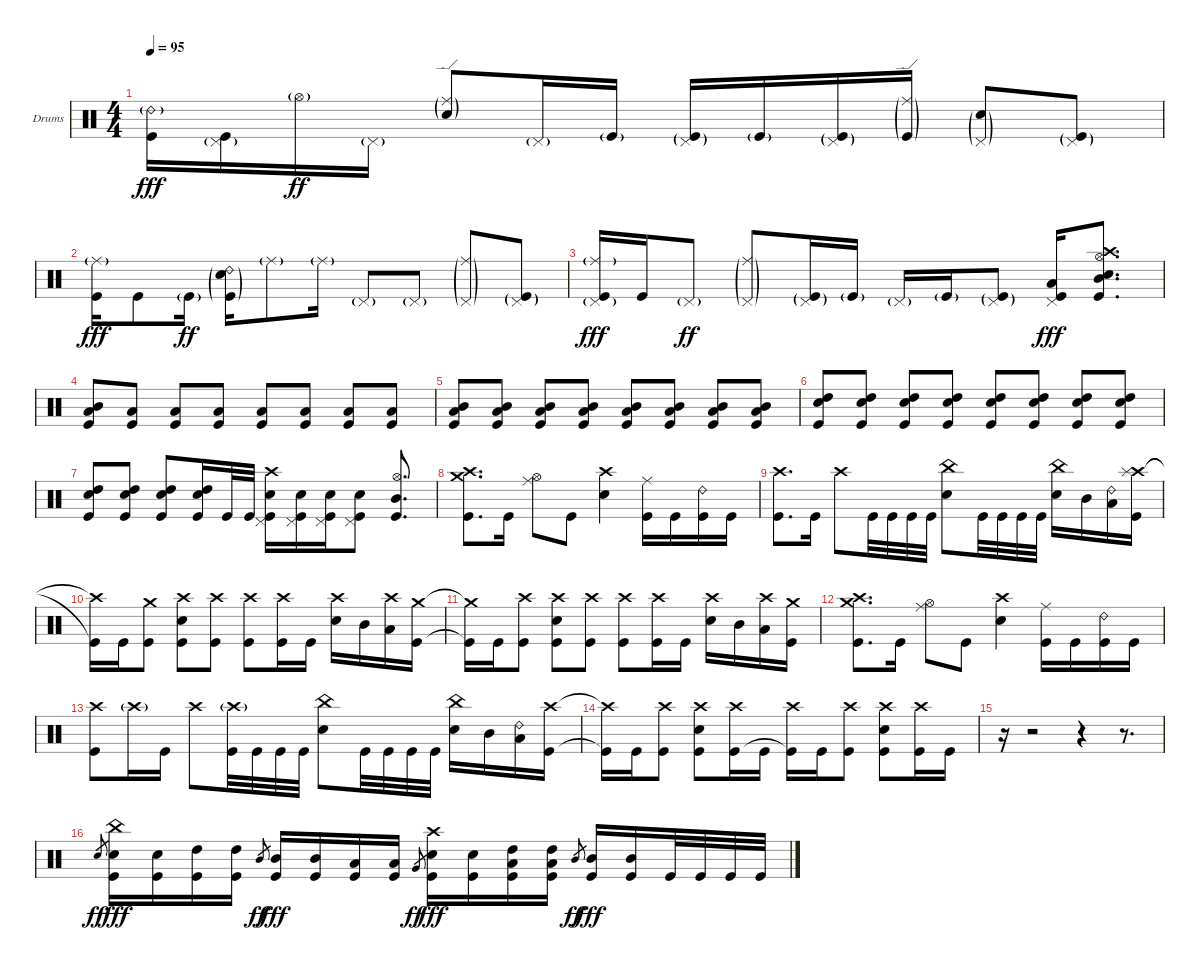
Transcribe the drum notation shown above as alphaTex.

\defaultSystemsLayout 4
\bracketExtendMode groupsimilarinstruments
\firstSystemTrackNameOrientation horizontal
\otherSystemsTrackNameOrientation horizontal
\track ("Drumkit" "Drums") {instrument percussion}
\staff {score}
\articulation defaults
\ts (4 4)
\tempo 95
\clef neutral
\scale
0.333333
\ks c
("Ride (bell) 2"{g} "Kick (hit)").16{dy fff} ("Pedal Hi-Hat (hit)"{g} "Kick (hit)").16 "Hi-Hat (open)"{g}.16{dy ff} "Pedal Hi-Hat (hit)"{g}.16 ("Ride (edge)"{g} "Snare (hit) 2"{g}).8 "Pedal Hi-Hat (hit)"{g}.16 "Kick (hit)"{g}.16 ("Pedal Hi-Hat (hit)"{g} "Kick (hit)"{g}).16 "Kick (hit)"{g}.16 ("Pedal Hi-Hat (hit)"{g} "Kick (hit)"{g}).16 ("Ride (edge)"{g} "Kick (hit)"{g}).16 ("Pedal Hi-Hat (hit)"{g} "Snare (hit) 2"{g}).8 ("Pedal Hi-Hat (hit)"{g} "Kick (hit)"{g}).8 |
\scale
0.333333 ("Ride (middle)"{g} "Kick (hit)").16{dy fff} "Kick (hit)".8 "Kick (hit)"{g}.16{dy ff} ("Ride (bell) 2"{g} "Snare (hit) 2"{g} "Kick (hit)"{g}).16 "Ride (middle)"{g}.8 "Ride (middle)"{g}.16 "Pedal Hi-Hat (hit)"{g}.8 "Pedal Hi-Hat (hit)"{g}.8 ("Pedal Hi-Hat (hit)"{g} "Ride (middle)"{g}).8 ("Pedal Hi-Hat (hit)"{g} "Kick (hit)"{g}).8 |
\scale
0.333333 ("Pedal Hi-Hat (hit)"{g} "Ride (middle)"{g} "Kick (hit)").16{dy fff} "Kick (hit)".16 "Pedal Hi-Hat (hit)"{g}.8{dy ff} ("Pedal Hi-Hat (hit)"{g} "Ride (middle)"{g}).8 ("Pedal Hi-Hat (hit)"{g} "Kick (hit)"{g}).16 "Kick (hit)"{g}.16 "Pedal Hi-Hat (hit)"{g}.16 "Kick (hit)"{g}.16 ("Pedal Hi-Hat (hit)"{g} "Kick (hit)"{g}).8 ("Pedal Hi-Hat (hit)" "Low Tom (hit)" "Kick (hit)").16{dy fff} ("Hi-Hat (open)" "Crash high (hit)" "Snare (hit) 2" "Mid Tom (hit)" "Kick (hit)").8{d} |
\scale
0.333333 ("Low Tom (hit)" "Mid Tom (hit)" "Kick (hit)").8 ("Low Tom (hit)" "Kick (hit)").8 ("Low Tom (hit)" "Kick (hit)").8 ("Low Tom (hit)" "Kick (hit)").8 ("Low Tom (hit)" "Kick (hit)").8 ("Low Tom (hit)" "Kick (hit)").8 ("Low Tom (hit)" "Kick (hit)").8 ("Low Tom (hit)" "Kick (hit)").8 |
\scale
0.333333 ("Low Tom (hit)" "Mid Tom (hit)" "Kick (hit)").8 ("Low Tom (hit)" "Mid Tom (hit)" "Kick (hit)").8 ("Low Tom (hit)" "Mid Tom (hit)" "Kick (hit)").8 ("Low Tom (hit)" "Mid Tom (hit)" "Kick (hit)").8 ("Low Tom (hit)" "Mid Tom (hit)" "Kick (hit)").8 ("Low Tom (hit)" "Mid Tom (hit)" "Kick (hit)").8 ("Low Tom (hit)" "Mid Tom (hit)" "Kick (hit)").8 ("Low Tom (hit)" "Mid Tom (hit)" "Kick (hit)").8 |
\scale
0.333333 ("Snare (hit) 2" "High Tom (hit)" "Kick (hit)").8 ("Snare (hit) 2" "High Tom (hit)" "Kick (hit)").8 ("Snare (hit) 2" "High Tom (hit)" "Kick (hit)").8 ("Snare (hit) 2" "High Tom (hit)" "Kick (hit)").8 ("Snare (hit) 2" "High Tom (hit)" "Kick (hit)").8 ("Snare (hit) 2" "High Tom (hit)" "Kick (hit)").8 ("Snare (hit) 2" "High Tom (hit)" "Kick (hit)").8 ("Snare (hit) 2" "High Tom (hit)" "Kick (hit)").8 |
\scale
0.333333 ("Snare (hit) 2" "High Tom (hit)" "Kick (hit)").8 ("Snare (hit) 2" "High Tom (hit)" "Kick (hit)").8 ("Snare (hit) 2" "High Tom (hit)" "Kick (hit)").8 ("Snare (hit) 2" "High Tom (hit)" "Kick (hit)").16 "Kick (hit)".32 "Kick (hit)".32 ("Crash high (hit)" "Pedal Hi-Hat (hit)" "Snare (hit) 2" "Kick (hit)").16 ("Pedal Hi-Hat (hit)" "Snare (hit) 2" "Kick (hit)").16 ("Pedal Hi-Hat (hit)" "Snare (hit) 2" "Kick (hit)").16 ("Pedal Hi-Hat (hit)" "Snare (hit) 2" "Kick (hit)").8 ("Hi-Hat (open)" "Kick (hit)" "Mid Tom (hit)").8{d} |
\scale
0.333333 ("Crash high (hit)" "Crash medium (hit)" "Kick (hit)").8{d} "Kick (hit)".16 ("Ride (middle)" "Hi-Hat (open)").8 "Kick (hit)".8 ("Crash high (hit)" "Snare (hit) 2").4 ("Ride (middle)" "Kick (hit)").16 "Kick (hit)".16 ("Ride (bell) 2" "Kick (hit)").16 "Kick (hit)".16 |
\scale
0.333333 ("Crash high (hit)" "Kick (hit)").8{d} "Kick (hit)".16 "Crash high (hit)".8 "Kick (hit)".32 "Kick (hit)".32 "Kick (hit)".32 "Kick (hit)".32 ("China (hit)" "Snare (hit) 2").8 "Kick (hit)".32 "Kick (hit)".32 "Kick (hit)".32 "Kick (hit)".32 ("China (hit)" "Snare (hit) 2").16 "Mid Tom (hit)".16 ("Ride (bell) 2" "Low Tom (hit)").16 ("Crash high (hit)" "Splash (hit)" "Kick (hit)").16 |
\scale
0.333333 ("Crash high (hit)"{t} "Kick (hit)"{t}).16 "Kick (hit)".16 ("Crash medium (hit)" "Kick (hit)").8 ("Crash high (hit)" "Snare (hit) 2" "Kick (hit)").8 ("Crash high (hit)" "Kick (hit)").8 ("Crash high (hit)" "Kick (hit)").8 ("Crash high (hit)" "Kick (hit)").16 "Kick (hit)".16 ("Crash high (hit)" "Snare (hit) 2").16 "Mid Tom (hit)".16 ("Crash high (hit)" "Low Tom (hit)").16 ("Crash medium (hit)" "Kick (hit)").16 |
\scale
0.333333 ("Crash medium (hit)"{t} "Kick (hit)"{t}).16 "Kick (hit)".16 ("Crash high (hit)" "Kick (hit)").8 ("Crash high (hit)" "Snare (hit) 2" "Kick (hit)").8 ("Crash high (hit)" "Kick (hit)").8 ("Crash high (hit)" "Kick (hit)").8 ("Crash high (hit)" "Kick (hit)").16 "Kick (hit)".16 ("Crash high (hit)" "Snare (hit) 2").16 "Mid Tom (hit)".16 ("Crash high (hit)" "Low Tom (hit)").16 ("Crash medium (hit)" "Kick (hit)").16 |
\scale
0.333333 ("Crash medium (hit)" "Crash high (hit)" "Kick (hit)").8{d} "Kick (hit)".16 ("Ride (middle)" "Hi-Hat (open)").8 "Kick (hit)".8 ("Crash high (hit)" "Snare (hit) 2").4 ("Ride (middle)" "Kick (hit)").16 "Kick (hit)".16 ("Ride (bell) 2" "Kick (hit)").16 "Kick (hit)".16 |
\scale
0.333333 ("Crash high (hit)" "Kick (hit)").8 "Crash high (hit)"{g}.16 "Kick (hit)".16 "Crash high (hit)".8 ("Crash high (hit)"{g} "Kick (hit)").32 "Kick (hit)".32 "Kick (hit)".32 "Kick (hit)".32 ("China (hit)" "Snare (hit) 2").8 "Kick (hit)".32 "Kick (hit)".32 "Kick (hit)".32 "Kick (hit)".32 ("China (hit)" "Snare (hit) 2").16 "Mid Tom (hit)".16 ("Ride (bell) 2" "Low Tom (hit)").16 ("Crash high (hit)" "Kick (hit)").16 |
\scale
0.333333 ("Crash high (hit)"{t} "Kick (hit)"{t}).16 "Kick (hit)".16 ("Crash high (hit)" "Kick (hit)").8 ("Crash high (hit)" "Snare (hit) 2" "Kick (hit)").8 ("Crash high (hit)" "Kick (hit)").16 "Kick (hit)".16 ("Crash high (hit)" "Kick (hit)"{t}).16 "Kick (hit)".16 ("Crash high (hit)" "Kick (hit)").8 ("Crash high (hit)" "Snare (hit) 2" "Kick (hit)").8 ("Crash high (hit)" "Kick (hit)").16 "Kick (hit)".16 |
\scale
0.333333 r.16 r.2 r.4 r.8{d} |
\scale
0.333333 "Snare (hit) 2".8{gr dy ff} ("China (hit)" "Snare (hit) 2" "Kick (hit)").16{dy fff} ("Snare (hit) 2" "Kick (hit)").16 ("High Tom (hit)" "Kick (hit)").16 ("High Tom (hit)" "Kick (hit)").16 "Mid Tom (hit)".8{gr dy ff} ("Mid Tom (hit)" "Kick (hit)").16{dy fff} ("Mid Tom (hit)" "Kick (hit)").16 ("Low Tom (hit)" "Kick (hit)").16 ("Low Tom (hit)" "Kick (hit)").16 "Very Low Tom (hit)".8{gr dy ff} ("Crash high (hit)" "Snare (hit) 2" "Kick (hit)").16{dy fff} ("Snare (hit) 2" "Kick (hit)").16 ("High Tom (hit)" "Low Tom (hit)" "Kick (hit)").16 ("High Tom (hit)" "Low Tom (hit)" "Kick (hit)").16 "Mid Tom (hit)".8{gr dy ff} ("Mid Tom (hit)" "Kick (hit)").16{dy fff} ("Mid Tom (hit)" "Kick (hit)").16 "Kick (hit)".32 "Kick (hit)".32 "Kick (hit)".32 "Kick (hit)".32
